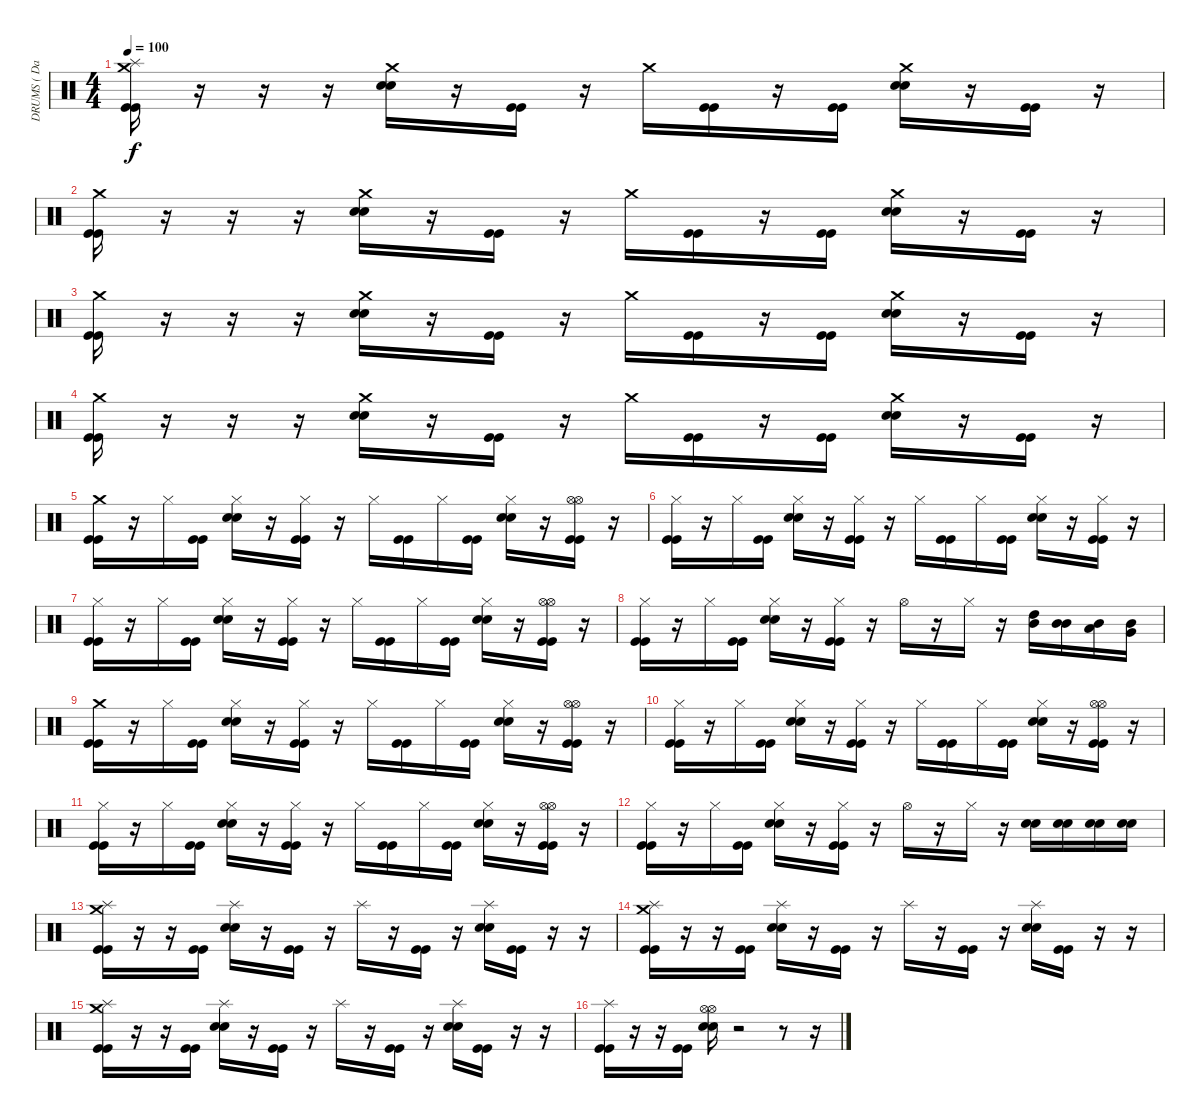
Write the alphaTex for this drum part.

\track ("DRUMS ( David ) - Wally Balljacker" "DRUMS ( Da") {instrument percussion}
\staff {score}
\articulation defaults
\ts (4 4)
\tempo 100
\clef neutral
\ks c
("Crash medium (hit)" "Splash (hit)" "Kick (hit)" "Kick (hit)").16{dy f} r.16 r.16 r.16 ("Crash medium (hit)" "Electric Snare (hit)" "Electric Snare (hit)").16 r.16 ("Kick (hit)" "Kick (hit)").16 r.16 "Crash medium (hit)".16 ("Kick (hit)" "Kick (hit)").16 r.16 ("Kick (hit)" "Kick (hit)").16 ("Crash medium (hit)" "Electric Snare (hit)" "Electric Snare (hit)").16 r.16 ("Kick (hit)" "Kick (hit)").16 r.16 |
("Crash medium (hit)" "Kick (hit)" "Kick (hit)").16 r.16 r.16 r.16 ("Crash medium (hit)" "Electric Snare (hit)" "Electric Snare (hit)").16 r.16 ("Kick (hit)" "Kick (hit)").16 r.16 "Crash medium (hit)".16 ("Kick (hit)" "Kick (hit)").16 r.16 ("Kick (hit)" "Kick (hit)").16 ("Crash medium (hit)" "Electric Snare (hit)" "Electric Snare (hit)").16 r.16 ("Kick (hit)" "Kick (hit)").16 r.16 |
("Crash medium (hit)" "Kick (hit)" "Kick (hit)").16 r.16 r.16 r.16 ("Crash medium (hit)" "Electric Snare (hit)" "Electric Snare (hit)").16 r.16 ("Kick (hit)" "Kick (hit)").16 r.16 "Crash medium (hit)".16 ("Kick (hit)" "Kick (hit)").16 r.16 ("Kick (hit)" "Kick (hit)").16 ("Crash medium (hit)" "Electric Snare (hit)" "Electric Snare (hit)").16 r.16 ("Kick (hit)" "Kick (hit)").16 r.16 |
("Crash medium (hit)" "Kick (hit)" "Kick (hit)").16 r.16 r.16 r.16 ("Crash medium (hit)" "Electric Snare (hit)" "Electric Snare (hit)").16 r.16 ("Kick (hit)" "Kick (hit)").16 r.16 "Crash medium (hit)".16 ("Kick (hit)" "Kick (hit)").16 r.16 ("Kick (hit)" "Kick (hit)").16 ("Crash medium (hit)" "Electric Snare (hit)" "Electric Snare (hit)").16 r.16 ("Kick (hit)" "Kick (hit)").16 r.16 |
("Crash medium (hit)" "Kick (hit)" "Kick (hit)").16 r.16 "Hi-Hat (closed)".16 ("Kick (hit)" "Kick (hit)").16 ("Hi-Hat (closed)" "Electric Snare (hit)" "Electric Snare (hit)").16 r.16 ("Hi-Hat (closed)" "Kick (hit)" "Kick (hit)").16 r.16 "Hi-Hat (closed)".16 ("Kick (hit)" "Kick (hit)").16 "Hi-Hat (closed)".16 ("Kick (hit)" "Kick (hit)").16 ("Hi-Hat (closed)" "Electric Snare (hit)" "Electric Snare (hit)").16 r.16 ("Hi-Hat (open)" "Hi-Hat (open)" "Kick (hit)" "Kick (hit)").16 r.16 |
("Hi-Hat (closed)" "Kick (hit)" "Kick (hit)").16 r.16 "Hi-Hat (closed)".16 ("Kick (hit)" "Kick (hit)").16 ("Hi-Hat (closed)" "Electric Snare (hit)" "Electric Snare (hit)").16 r.16 ("Hi-Hat (closed)" "Kick (hit)" "Kick (hit)").16 r.16 "Hi-Hat (closed)".16 ("Kick (hit)" "Kick (hit)").16 "Hi-Hat (closed)".16 ("Kick (hit)" "Kick (hit)").16 ("Hi-Hat (closed)" "Electric Snare (hit)" "Electric Snare (hit)").16 r.16 ("Hi-Hat (closed)" "Kick (hit)" "Kick (hit)").16 r.16 |
("Hi-Hat (closed)" "Kick (hit)" "Kick (hit)").16 r.16 "Hi-Hat (closed)".16 ("Kick (hit)" "Kick (hit)").16 ("Hi-Hat (closed)" "Electric Snare (hit)" "Electric Snare (hit)").16 r.16 ("Hi-Hat (closed)" "Kick (hit)" "Kick (hit)").16 r.16 "Hi-Hat (closed)".16 ("Kick (hit)" "Kick (hit)").16 "Hi-Hat (closed)".16 ("Kick (hit)" "Kick (hit)").16 ("Hi-Hat (closed)" "Electric Snare (hit)" "Electric Snare (hit)").16 r.16 ("Hi-Hat (open)" "Hi-Hat (open)" "Kick (hit)" "Kick (hit)").16 r.16 |
("Hi-Hat (closed)" "Kick (hit)" "Kick (hit)").16 r.16 "Hi-Hat (closed)".16 ("Kick (hit)" "Kick (hit)").16 ("Hi-Hat (closed)" "Electric Snare (hit)" "Electric Snare (hit)").16 r.16 ("Hi-Hat (closed)" "Kick (hit)" "Kick (hit)").16 r.16 "Hi-Hat (open)".16 r.16 "Hi-Hat (closed)".16 r.16 ("High Tom (hit)" "Mid Tom (hit)").16 ("Mid Tom (hit)" "Mid Tom (hit)").16 ("Low Tom (hit)" "Mid Tom (hit)").16 ("Very Low Tom (hit)" "Mid Tom (hit)").16 |
("Crash medium (hit)" "Kick (hit)" "Kick (hit)").16 r.16 "Hi-Hat (closed)".16 ("Kick (hit)" "Kick (hit)").16 ("Hi-Hat (closed)" "Electric Snare (hit)" "Electric Snare (hit)").16 r.16 ("Hi-Hat (closed)" "Kick (hit)" "Kick (hit)").16 r.16 "Hi-Hat (closed)".16 ("Kick (hit)" "Kick (hit)").16 "Hi-Hat (closed)".16 ("Kick (hit)" "Kick (hit)").16 ("Hi-Hat (closed)" "Electric Snare (hit)" "Electric Snare (hit)").16 r.16 ("Hi-Hat (open)" "Hi-Hat (open)" "Kick (hit)" "Kick (hit)").16 r.16 |
("Hi-Hat (closed)" "Kick (hit)" "Kick (hit)").16 r.16 "Hi-Hat (closed)".16 ("Kick (hit)" "Kick (hit)").16 ("Hi-Hat (closed)" "Electric Snare (hit)" "Electric Snare (hit)").16 r.16 ("Hi-Hat (closed)" "Kick (hit)" "Kick (hit)").16 r.16 "Hi-Hat (closed)".16 ("Kick (hit)" "Kick (hit)").16 "Hi-Hat (closed)".16 ("Kick (hit)" "Kick (hit)").16 ("Hi-Hat (closed)" "Electric Snare (hit)" "Electric Snare (hit)").16 r.16 ("Hi-Hat (open)" "Hi-Hat (open)" "Kick (hit)" "Kick (hit)").16 r.16 |
("Hi-Hat (closed)" "Kick (hit)" "Kick (hit)").16 r.16 "Hi-Hat (closed)".16 ("Kick (hit)" "Kick (hit)").16 ("Hi-Hat (closed)" "Electric Snare (hit)" "Electric Snare (hit)").16 r.16 ("Hi-Hat (closed)" "Kick (hit)" "Kick (hit)").16 r.16 "Hi-Hat (closed)".16 ("Kick (hit)" "Kick (hit)").16 "Hi-Hat (closed)".16 ("Kick (hit)" "Kick (hit)").16 ("Hi-Hat (closed)" "Electric Snare (hit)" "Electric Snare (hit)").16 r.16 ("Hi-Hat (open)" "Hi-Hat (open)" "Kick (hit)" "Kick (hit)").16 r.16 |
("Hi-Hat (closed)" "Kick (hit)" "Kick (hit)").16 r.16 "Hi-Hat (closed)".16 ("Kick (hit)" "Kick (hit)").16 ("Hi-Hat (closed)" "Electric Snare (hit)" "Electric Snare (hit)").16 r.16 ("Hi-Hat (closed)" "Kick (hit)" "Kick (hit)").16 r.16 "Hi-Hat (open)".16 r.16 "Hi-Hat (closed)".16 r.16 ("Electric Snare (hit)" "Electric Snare (hit)").16 ("Electric Snare (hit)" "Electric Snare (hit)").16 ("Electric Snare (hit)" "Electric Snare (hit)").16 ("Electric Snare (hit)" "Electric Snare (hit)").16 |
("Splash (hit)" "Crash medium (hit)" "Kick (hit)" "Kick (hit)").16 r.16 r.16 ("Kick (hit)" "Kick (hit)").16 ("Splash (hit)" "Electric Snare (hit)" "Electric Snare (hit)").16 r.16 ("Kick (hit)" "Kick (hit)").16 r.16 "Splash (hit)".16 r.16 ("Kick (hit)" "Kick (hit)").16 r.16 ("Splash (hit)" "Electric Snare (hit)" "Electric Snare (hit)").16 ("Kick (hit)" "Kick (hit)").16 r.16 r.16 |
("Splash (hit)" "Crash medium (hit)" "Kick (hit)" "Kick (hit)").16 r.16 r.16 ("Kick (hit)" "Kick (hit)").16 ("Splash (hit)" "Electric Snare (hit)" "Electric Snare (hit)").16 r.16 ("Kick (hit)" "Kick (hit)").16 r.16 "Splash (hit)".16 r.16 ("Kick (hit)" "Kick (hit)").16 r.16 ("Splash (hit)" "Electric Snare (hit)" "Electric Snare (hit)").16 ("Kick (hit)" "Kick (hit)").16 r.16 r.16 |
("Splash (hit)" "Crash medium (hit)" "Kick (hit)" "Kick (hit)").16 r.16 r.16 ("Kick (hit)" "Kick (hit)").16 ("Splash (hit)" "Electric Snare (hit)" "Electric Snare (hit)").16 r.16 ("Kick (hit)" "Kick (hit)").16 r.16 "Splash (hit)".16 r.16 ("Kick (hit)" "Kick (hit)").16 r.16 ("Splash (hit)" "Electric Snare (hit)" "Electric Snare (hit)").16 ("Kick (hit)" "Kick (hit)").16 r.16 r.16 |
("Splash (hit)" "Kick (hit)" "Kick (hit)").16 r.16 r.16 ("Kick (hit)" "Kick (hit)").16 ("Hi-Hat (open)" "Hi-Hat (open)" "Electric Snare (hit)" "Electric Snare (hit)").16 r.2 r.8 r.16
